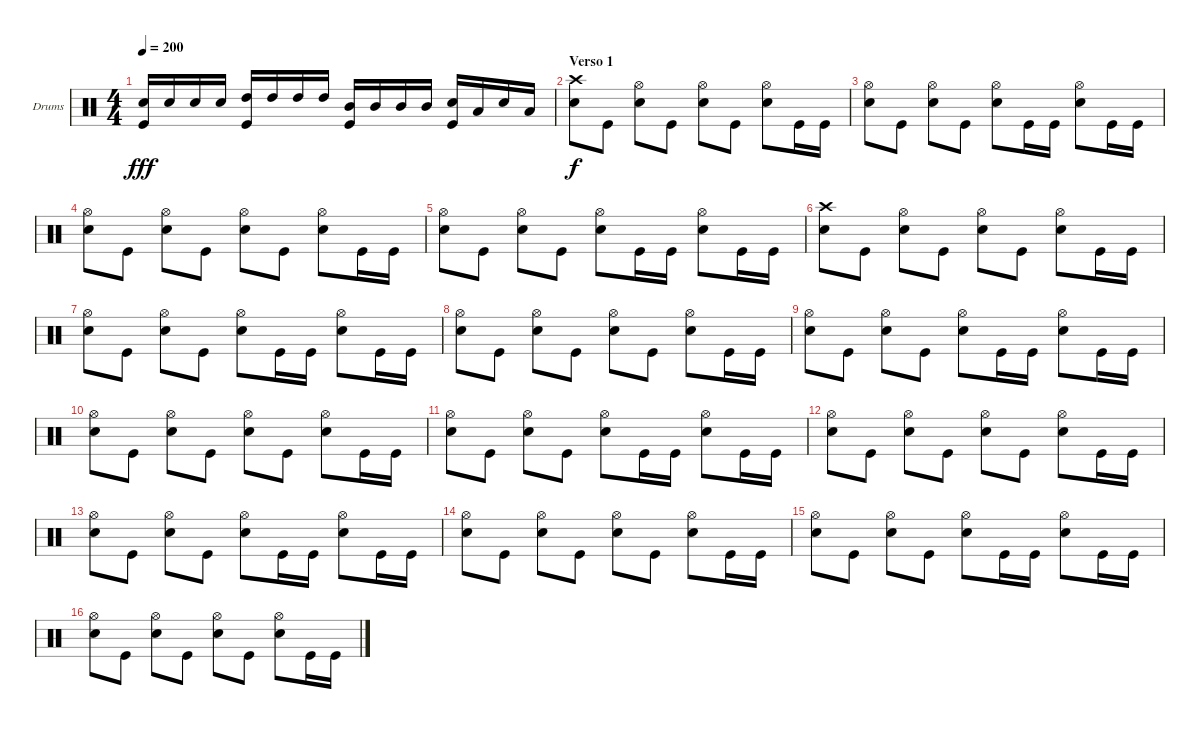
\defaultSystemsLayout 4
\bracketExtendMode groupsimilarinstruments
\firstSystemTrackNameOrientation horizontal
\otherSystemsTrackNameOrientation horizontal
\track ("Drumkit" "Drums") {instrument percussion}
\staff {score}
\articulation defaults
\ts (4 4)
\tempo 200
\clef neutral
\ks c
("Kick (hit)" "Snare (hit) 2").16{dy fff} "Snare (hit) 2".16 "Snare (hit) 2".16 "Snare (hit) 2".16 ("High Tom (hit)" "Kick (hit)").16 "High Tom (hit)".16 "High Tom (hit)".16 "High Tom (hit)".16 ("Mid Tom (hit)" "Kick (hit)").16 "Mid Tom (hit)".16 "Mid Tom (hit)".16 "Mid Tom (hit)".16 ("Kick (hit)" "Snare (hit) 2").16 "Low Tom (hit)".16 "Snare (hit) 2".16 "Low Tom (hit)".16 |
\section ("" "Verso 1")
("Snare (hit) 2" "Crash high (hit)").8{dy f} "Kick (hit)".8 ("Snare (hit) 2" "Hi-Hat (open)").8 "Kick (hit)".8 ("Snare (hit) 2" "Hi-Hat (open)").8 "Kick (hit)".8 ("Snare (hit) 2" "Hi-Hat (open)").8 "Kick (hit)".16 "Kick (hit)".16 |
("Snare (hit) 2" "Hi-Hat (open)").8 "Kick (hit)".8 ("Hi-Hat (open)" "Snare (hit) 2").8 "Kick (hit)".8 ("Snare (hit) 2" "Hi-Hat (open)").8 "Kick (hit)".16 "Kick (hit)".16 ("Snare (hit) 2" "Hi-Hat (open)").8 "Kick (hit)".16 "Kick (hit)".16 |
("Hi-Hat (open)" "Snare (hit) 2").8 "Kick (hit)".8 ("Snare (hit) 2" "Hi-Hat (open)").8 "Kick (hit)".8 ("Snare (hit) 2" "Hi-Hat (open)").8 "Kick (hit)".8 ("Snare (hit) 2" "Hi-Hat (open)").8 "Kick (hit)".16 "Kick (hit)".16 |
("Snare (hit) 2" "Hi-Hat (open)").8 "Kick (hit)".8 ("Hi-Hat (open)" "Snare (hit) 2").8 "Kick (hit)".8 ("Snare (hit) 2" "Hi-Hat (open)").8 "Kick (hit)".16 "Kick (hit)".16 ("Snare (hit) 2" "Hi-Hat (open)").8 "Kick (hit)".16 "Kick (hit)".16 |
("Snare (hit) 2" "Crash high (hit)").8 "Kick (hit)".8 ("Snare (hit) 2" "Hi-Hat (open)").8 "Kick (hit)".8 ("Snare (hit) 2" "Hi-Hat (open)").8 "Kick (hit)".8 ("Snare (hit) 2" "Hi-Hat (open)").8 "Kick (hit)".16 "Kick (hit)".16 |
("Snare (hit) 2" "Hi-Hat (open)").8 "Kick (hit)".8 ("Hi-Hat (open)" "Snare (hit) 2").8 "Kick (hit)".8 ("Snare (hit) 2" "Hi-Hat (open)").8 "Kick (hit)".16 "Kick (hit)".16 ("Snare (hit) 2" "Hi-Hat (open)").8 "Kick (hit)".16 "Kick (hit)".16 |
("Hi-Hat (open)" "Snare (hit) 2").8 "Kick (hit)".8 ("Snare (hit) 2" "Hi-Hat (open)").8 "Kick (hit)".8 ("Snare (hit) 2" "Hi-Hat (open)").8 "Kick (hit)".8 ("Snare (hit) 2" "Hi-Hat (open)").8 "Kick (hit)".16 "Kick (hit)".16 |
("Snare (hit) 2" "Hi-Hat (open)").8 "Kick (hit)".8 ("Hi-Hat (open)" "Snare (hit) 2").8 "Kick (hit)".8 ("Snare (hit) 2" "Hi-Hat (open)").8 "Kick (hit)".16 "Kick (hit)".16 ("Snare (hit) 2" "Hi-Hat (open)").8 "Kick (hit)".16 "Kick (hit)".16 |
("Hi-Hat (open)" "Snare (hit) 2").8 "Kick (hit)".8 ("Snare (hit) 2" "Hi-Hat (open)").8 "Kick (hit)".8 ("Snare (hit) 2" "Hi-Hat (open)").8 "Kick (hit)".8 ("Snare (hit) 2" "Hi-Hat (open)").8 "Kick (hit)".16 "Kick (hit)".16 |
("Snare (hit) 2" "Hi-Hat (open)").8 "Kick (hit)".8 ("Hi-Hat (open)" "Snare (hit) 2").8 "Kick (hit)".8 ("Snare (hit) 2" "Hi-Hat (open)").8 "Kick (hit)".16 "Kick (hit)".16 ("Snare (hit) 2" "Hi-Hat (open)").8 "Kick (hit)".16 "Kick (hit)".16 |
("Hi-Hat (open)" "Snare (hit) 2").8 "Kick (hit)".8 ("Snare (hit) 2" "Hi-Hat (open)").8 "Kick (hit)".8 ("Snare (hit) 2" "Hi-Hat (open)").8 "Kick (hit)".8 ("Snare (hit) 2" "Hi-Hat (open)").8 "Kick (hit)".16 "Kick (hit)".16 |
("Snare (hit) 2" "Hi-Hat (open)").8 "Kick (hit)".8 ("Hi-Hat (open)" "Snare (hit) 2").8 "Kick (hit)".8 ("Snare (hit) 2" "Hi-Hat (open)").8 "Kick (hit)".16 "Kick (hit)".16 ("Snare (hit) 2" "Hi-Hat (open)").8 "Kick (hit)".16 "Kick (hit)".16 |
("Hi-Hat (open)" "Snare (hit) 2").8 "Kick (hit)".8 ("Snare (hit) 2" "Hi-Hat (open)").8 "Kick (hit)".8 ("Snare (hit) 2" "Hi-Hat (open)").8 "Kick (hit)".8 ("Snare (hit) 2" "Hi-Hat (open)").8 "Kick (hit)".16 "Kick (hit)".16 |
("Snare (hit) 2" "Hi-Hat (open)").8 "Kick (hit)".8 ("Hi-Hat (open)" "Snare (hit) 2").8 "Kick (hit)".8 ("Snare (hit) 2" "Hi-Hat (open)").8 "Kick (hit)".16 "Kick (hit)".16 ("Snare (hit) 2" "Hi-Hat (open)").8 "Kick (hit)".16 "Kick (hit)".16 |
("Hi-Hat (open)" "Snare (hit) 2").8 "Kick (hit)".8 ("Snare (hit) 2" "Hi-Hat (open)").8 "Kick (hit)".8 ("Snare (hit) 2" "Hi-Hat (open)").8 "Kick (hit)".8 ("Snare (hit) 2" "Hi-Hat (open)").8 "Kick (hit)".16 "Kick (hit)".16
